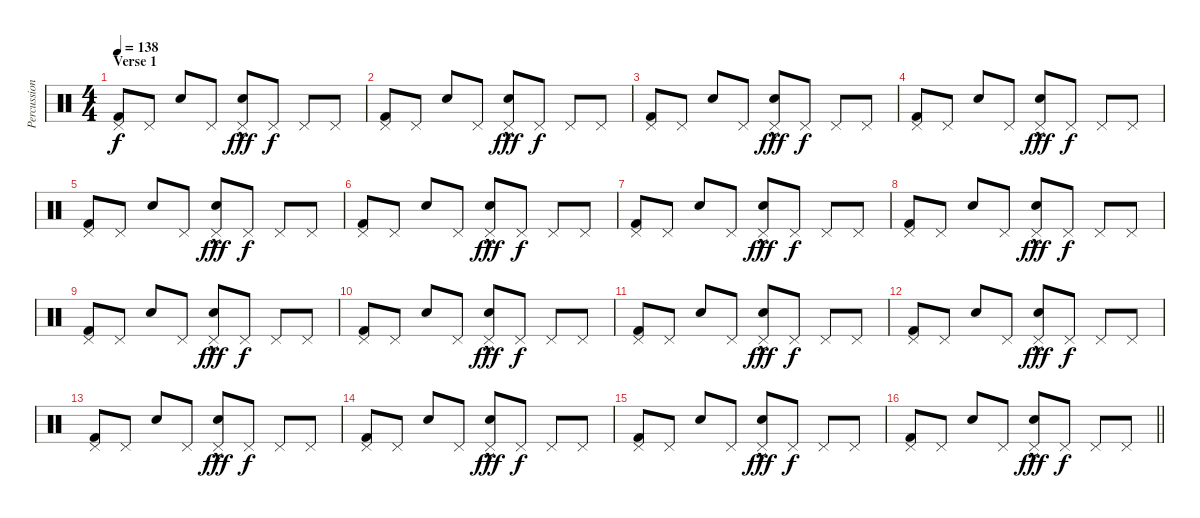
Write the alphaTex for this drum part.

\track ("Percussion" "Percussion") {instrument percussion}
\staff {score}
\articulation defaults
\ts (4 4)
\section ("" "Verse 1")
\tempo 138
\clef neutral
\ks c
("Kick (hit) 2" "Pedal Hi-Hat (hit)").8{dy f} "Pedal Hi-Hat (hit)".8 "Snare (hit)".8 "Pedal Hi-Hat (hit)".8 ("Snare (hit) 2"{hac} "Pedal Hi-Hat (hit)").8{dy fff} "Pedal Hi-Hat (hit)".8{dy f} "Pedal Hi-Hat (hit)".8 "Pedal Hi-Hat (hit)".8 |
("Kick (hit) 2" "Pedal Hi-Hat (hit)").8 "Pedal Hi-Hat (hit)".8 "Snare (hit)".8 "Pedal Hi-Hat (hit)".8 ("Snare (hit) 2"{hac} "Pedal Hi-Hat (hit)").8{dy fff} "Pedal Hi-Hat (hit)".8{dy f} "Pedal Hi-Hat (hit)".8 "Pedal Hi-Hat (hit)".8 |
("Kick (hit) 2" "Pedal Hi-Hat (hit)").8 "Pedal Hi-Hat (hit)".8 "Snare (hit)".8 "Pedal Hi-Hat (hit)".8 ("Snare (hit) 2"{hac} "Pedal Hi-Hat (hit)").8{dy fff} "Pedal Hi-Hat (hit)".8{dy f} "Pedal Hi-Hat (hit)".8 "Pedal Hi-Hat (hit)".8 |
("Kick (hit) 2" "Pedal Hi-Hat (hit)").8 "Pedal Hi-Hat (hit)".8 "Snare (hit)".8 "Pedal Hi-Hat (hit)".8 ("Snare (hit) 2"{hac} "Pedal Hi-Hat (hit)").8{dy fff} "Pedal Hi-Hat (hit)".8{dy f} "Pedal Hi-Hat (hit)".8 "Pedal Hi-Hat (hit)".8 |
("Kick (hit) 2" "Pedal Hi-Hat (hit)").8 "Pedal Hi-Hat (hit)".8 "Snare (hit)".8 "Pedal Hi-Hat (hit)".8 ("Snare (hit) 2"{hac} "Pedal Hi-Hat (hit)").8{dy fff} "Pedal Hi-Hat (hit)".8{dy f} "Pedal Hi-Hat (hit)".8 "Pedal Hi-Hat (hit)".8 |
("Kick (hit) 2" "Pedal Hi-Hat (hit)").8 "Pedal Hi-Hat (hit)".8 "Snare (hit)".8 "Pedal Hi-Hat (hit)".8 ("Snare (hit) 2"{hac} "Pedal Hi-Hat (hit)").8{dy fff} "Pedal Hi-Hat (hit)".8{dy f} "Pedal Hi-Hat (hit)".8 "Pedal Hi-Hat (hit)".8 |
("Kick (hit) 2" "Pedal Hi-Hat (hit)").8 "Pedal Hi-Hat (hit)".8 "Snare (hit)".8 "Pedal Hi-Hat (hit)".8 ("Snare (hit) 2"{hac} "Pedal Hi-Hat (hit)").8{dy fff} "Pedal Hi-Hat (hit)".8{dy f} "Pedal Hi-Hat (hit)".8 "Pedal Hi-Hat (hit)".8 |
("Kick (hit) 2" "Pedal Hi-Hat (hit)").8 "Pedal Hi-Hat (hit)".8 "Snare (hit)".8 "Pedal Hi-Hat (hit)".8 ("Snare (hit) 2"{hac} "Pedal Hi-Hat (hit)").8{dy fff} "Pedal Hi-Hat (hit)".8{dy f} "Pedal Hi-Hat (hit)".8 "Pedal Hi-Hat (hit)".8 |
("Kick (hit) 2" "Pedal Hi-Hat (hit)").8 "Pedal Hi-Hat (hit)".8 "Snare (hit)".8 "Pedal Hi-Hat (hit)".8 ("Snare (hit) 2"{hac} "Pedal Hi-Hat (hit)").8{dy fff} "Pedal Hi-Hat (hit)".8{dy f} "Pedal Hi-Hat (hit)".8 "Pedal Hi-Hat (hit)".8 |
("Kick (hit) 2" "Pedal Hi-Hat (hit)").8 "Pedal Hi-Hat (hit)".8 "Snare (hit)".8 "Pedal Hi-Hat (hit)".8 ("Snare (hit) 2"{hac} "Pedal Hi-Hat (hit)").8{dy fff} "Pedal Hi-Hat (hit)".8{dy f} "Pedal Hi-Hat (hit)".8 "Pedal Hi-Hat (hit)".8 |
("Kick (hit) 2" "Pedal Hi-Hat (hit)").8 "Pedal Hi-Hat (hit)".8 "Snare (hit)".8 "Pedal Hi-Hat (hit)".8 ("Snare (hit) 2"{hac} "Pedal Hi-Hat (hit)").8{dy fff} "Pedal Hi-Hat (hit)".8{dy f} "Pedal Hi-Hat (hit)".8 "Pedal Hi-Hat (hit)".8 |
("Kick (hit) 2" "Pedal Hi-Hat (hit)").8 "Pedal Hi-Hat (hit)".8 "Snare (hit)".8 "Pedal Hi-Hat (hit)".8 ("Snare (hit) 2"{hac} "Pedal Hi-Hat (hit)").8{dy fff} "Pedal Hi-Hat (hit)".8{dy f} "Pedal Hi-Hat (hit)".8 "Pedal Hi-Hat (hit)".8 |
("Kick (hit) 2" "Pedal Hi-Hat (hit)").8 "Pedal Hi-Hat (hit)".8 "Snare (hit)".8 "Pedal Hi-Hat (hit)".8 ("Snare (hit) 2"{hac} "Pedal Hi-Hat (hit)").8{dy fff} "Pedal Hi-Hat (hit)".8{dy f} "Pedal Hi-Hat (hit)".8 "Pedal Hi-Hat (hit)".8 |
("Kick (hit) 2" "Pedal Hi-Hat (hit)").8 "Pedal Hi-Hat (hit)".8 "Snare (hit)".8 "Pedal Hi-Hat (hit)".8 ("Snare (hit) 2"{hac} "Pedal Hi-Hat (hit)").8{dy fff} "Pedal Hi-Hat (hit)".8{dy f} "Pedal Hi-Hat (hit)".8 "Pedal Hi-Hat (hit)".8 |
("Kick (hit) 2" "Pedal Hi-Hat (hit)").8 "Pedal Hi-Hat (hit)".8 "Snare (hit)".8 "Pedal Hi-Hat (hit)".8 ("Snare (hit) 2"{hac} "Pedal Hi-Hat (hit)").8{dy fff} "Pedal Hi-Hat (hit)".8{dy f} "Pedal Hi-Hat (hit)".8 "Pedal Hi-Hat (hit)".8 |
\barLineRight lightlight
("Kick (hit) 2" "Pedal Hi-Hat (hit)").8 "Pedal Hi-Hat (hit)".8 "Snare (hit)".8 "Pedal Hi-Hat (hit)".8 ("Snare (hit) 2"{hac} "Pedal Hi-Hat (hit)").8{dy fff} "Pedal Hi-Hat (hit)".8{dy f} "Pedal Hi-Hat (hit)".8 "Pedal Hi-Hat (hit)".8
